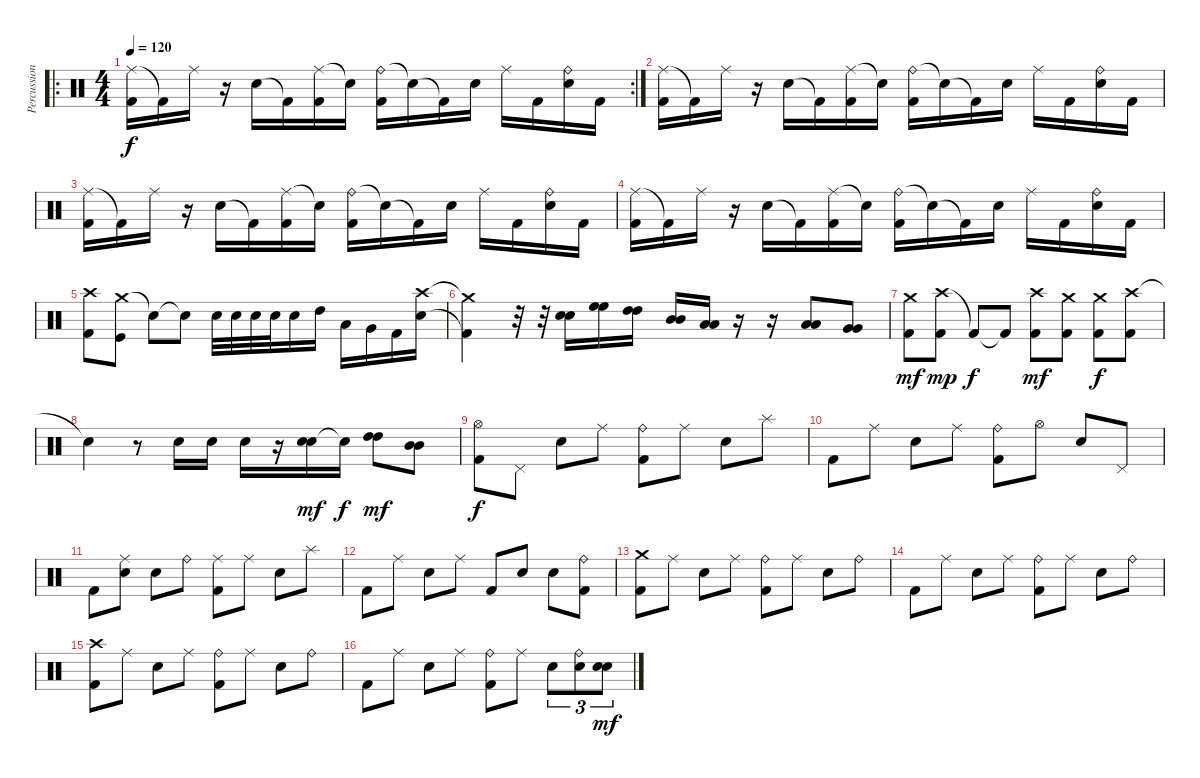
\track ("Percussioni" "Percussion") {instrument percussion}
\staff {score}
\articulation defaults
\ro
\rc 2
\ts (4 4)
\tempo 120
\clef neutral
\ks c
("Ride (middle)" "Kick (hit) 2").16{dy f} "Kick (hit) 2"{t}.16 "Ride (middle)".16 r.16 "Electric Snare (hit)".16 "Kick (hit) 2"{t}.16 ("Ride (middle)" "Kick (hit) 2").16 "Snare (hit)"{t}.16 ("Ride (bell)" "Kick (hit) 2").16 "Snare (hit)"{t}.16 "Kick (hit) 2"{t}.16 "Electric Snare (hit)".16 "Ride (middle)".16 "Kick (hit) 2".16 ("Ride (bell)" "Electric Snare (hit)").16 "Kick (hit) 2".16 |
("Ride (middle)" "Kick (hit) 2").16 "Kick (hit) 2"{t}.16 "Ride (middle)".16 r.16 "Electric Snare (hit)".16 "Kick (hit) 2"{t}.16 ("Ride (middle)" "Kick (hit) 2").16 "Snare (hit)"{t}.16 ("Ride (bell)" "Kick (hit) 2").16 "Snare (hit)"{t}.16 "Kick (hit) 2"{t}.16 "Electric Snare (hit)".16 "Ride (middle)".16 "Kick (hit) 2".16 ("Ride (bell)" "Electric Snare (hit)").16 "Kick (hit) 2".16 |
("Ride (middle)" "Kick (hit) 2").16 "Kick (hit) 2"{t}.16 "Ride (middle)".16 r.16 "Electric Snare (hit)".16 "Kick (hit) 2"{t}.16 ("Ride (middle)" "Kick (hit) 2").16 "Snare (hit)"{t}.16 ("Ride (bell)" "Kick (hit) 2").16 "Snare (hit)"{t}.16 "Kick (hit) 2"{t}.16 "Electric Snare (hit)".16 "Ride (middle)".16 "Kick (hit) 2".16 ("Ride (bell)" "Electric Snare (hit)").16 "Kick (hit) 2".16 |
("Ride (middle)" "Kick (hit) 2").16 "Kick (hit) 2"{t}.16 "Ride (middle)".16 r.16 "Electric Snare (hit)".16 "Kick (hit) 2"{t}.16 ("Ride (middle)" "Kick (hit) 2").16 "Snare (hit)"{t}.16 ("Ride (bell)" "Kick (hit) 2").16 "Snare (hit)"{t}.16 "Kick (hit) 2"{t}.16 "Electric Snare (hit)".16 "Ride (middle)".16 "Kick (hit) 2".16 ("Ride (bell)" "Electric Snare (hit)").16 "Kick (hit) 2".16 |
("Crash high (hit)" "Kick (hit) 2").8 ("Crash medium (hit)" "Kick (hit)").8 "Snare (hit)"{t}.8 "Snare (hit)"{t}.8 "Electric Snare (hit)".32 "Electric Snare (hit)".32 "Electric Snare (hit)".32 "Electric Snare (hit)".32 "Electric Snare (hit)".16 "High Tom (hit)".16 "Low Tom (hit)".16 "Very Low Tom (hit)".16 "Kick (hit) 2".16 ("Crash high (hit)" "Electric Snare (hit)").16 |
("Crash medium (hit)"{t} "Kick (hit) 2"{t}).4 r.32 r.32 ("Electric Snare (hit)" "Electric Snare (hit)").16{bd 120} ("High Floor Tom (hit)" "High Floor Tom (hit)").16{bd 240} ("High Tom (hit)" "High Tom (hit)").16{bd 240} ("Mid Tom (hit)" "Mid Tom (hit)").16{bd 240} ("Low Tom (hit)" "Low Tom (hit)").16{bd 240} r.16 r.16 ("Low Tom (hit)" "Low Tom (hit)").8{bd 240} ("Very Low Tom (hit)" "Very Low Tom (hit)").8{bd 240} |
("Crash medium (hit)" "Kick (hit) 2").8{dy mf} ("Crash high (hit)" "Kick (hit) 2").8{dy mp} "Kick (hit) 2"{t}.8{dy f} "Kick (hit) 2"{t}.8 ("Crash high (hit)" "Kick (hit) 2").8{dy mf} ("Crash medium (hit)" "Kick (hit) 2").8 ("Crash medium (hit)" "Kick (hit) 2").8{dy f} ("Crash high (hit)" "Kick (hit) 2").8 |
"Snare (hit)"{t}.4 r.8 "Electric Snare (hit)".16 "Electric Snare (hit)".16 "Electric Snare (hit)".16 r.16 ("Electric Snare (hit)" "Electric Snare (hit)").16{bd 240 dy mf} "Electric Snare (hit)"{t}.16{dy f} ("High Tom (hit)" "High Tom (hit)").8{bd 120 dy mf} ("Mid Tom (hit)" "Mid Tom (hit)").8{bd 120} |
("Hi-Hat (open)" "Kick (hit) 2").8{dy f} "Pedal Hi-Hat (hit)".8 "Electric Snare (hit)".8 "Ride (middle)".8 ("Ride (bell)" "Kick (hit) 2").8 "Ride (middle)".8 "Electric Snare (hit)".8 "Splash (hit)".8 |
"Kick (hit) 2".8 "Ride (middle)".8 "Electric Snare (hit)".8 "Ride (middle)".8 ("Ride (bell)" "Kick (hit) 2").8 "Hi-Hat (open)".8 "Electric Snare (hit)".8 "Pedal Hi-Hat (hit)".8 |
"Kick (hit) 2".8 ("Ride (middle)" "Electric Snare (hit)").8 "Electric Snare (hit)".8 "Ride (bell)".8 ("Ride (middle)" "Kick (hit) 2").8 "Ride (middle)".8 "Electric Snare (hit)".8 "Splash (hit)".8 |
"Kick (hit) 2".8 "Ride (middle)".8 "Electric Snare (hit)".8 "Ride (middle)".8 "Kick (hit) 2".8 "Electric Snare (hit)".8 "Electric Snare (hit)".8 ("Ride (bell)" "Kick (hit) 2").8 |
("Crash medium (hit)" "Kick (hit) 2").8 "Ride (middle)".8 "Electric Snare (hit)".8 "Ride (middle)".8 ("Ride (bell)" "Kick (hit) 2").8 "Ride (middle)".8 "Electric Snare (hit)".8 "Ride (bell)".8 |
"Kick (hit) 2".8 "Ride (middle)".8 "Electric Snare (hit)".8 "Ride (middle)".8 ("Ride (bell)" "Kick (hit) 2").8 "Ride (middle)".8 "Electric Snare (hit)".8 "Ride (bell)".8 |
("Crash high (hit)" "Kick (hit) 2").8 "Ride (middle)".8 "Electric Snare (hit)".8 "Ride (middle)".8 ("Ride (bell)" "Kick (hit) 2").8 "Ride (middle)".8 "Electric Snare (hit)".8 "Ride (bell)".8 |
"Kick (hit) 2".8 "Ride (middle)".8 "Electric Snare (hit)".8 "Ride (middle)".8 ("Ride (bell)" "Kick (hit) 2").8 "Ride (middle)".8 "Electric Snare (hit)".8{tu (3 2)} ("Ride (bell)" "Electric Snare (hit)").8{tu (3 2)} ("Electric Snare (hit)" "Electric Snare (hit)").8{tu (3 2) bd 240 dy mf}
